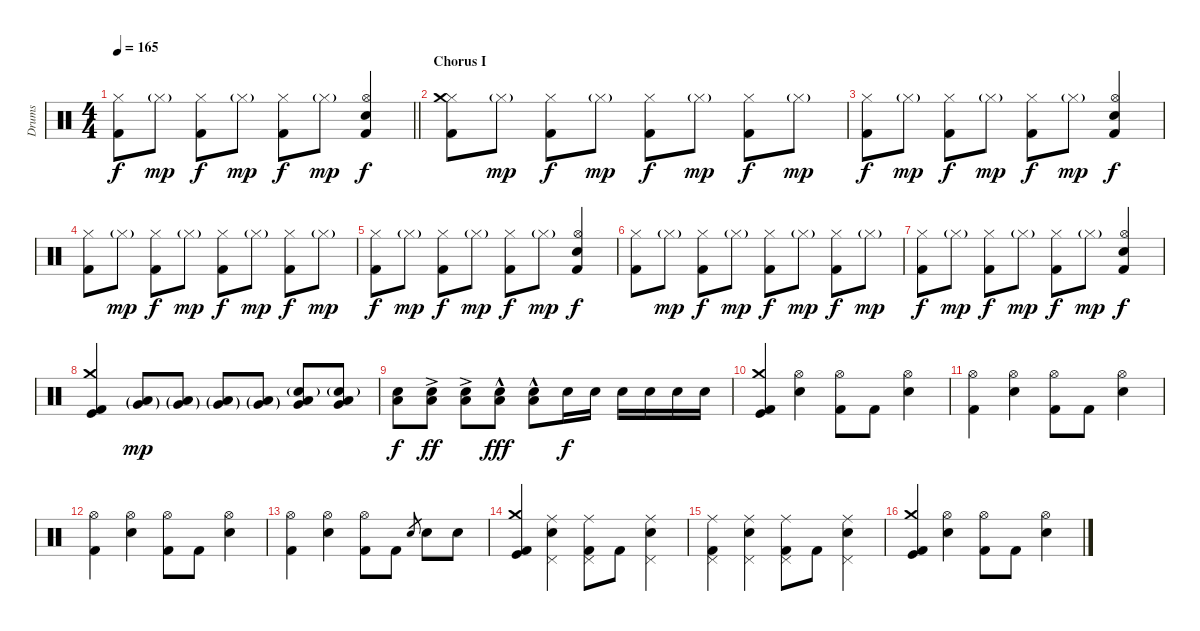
\track ("Drums" "Drums") {instrument percussion}
\staff {score}
\articulation defaults
\ts (4 4)
\tempo 165
\clef neutral
\barLineRight lightlight
\ks c
("Hi-Hat (closed)" "Kick (hit) 2").8{dy f} "Hi-Hat (closed)"{g}.8{dy mp} ("Hi-Hat (closed)" "Kick (hit) 2").8{dy f} "Hi-Hat (closed)"{g}.8{dy mp} ("Hi-Hat (closed)" "Kick (hit) 2").8{dy f} "Hi-Hat (closed)"{g}.8{dy mp} ("Hi-Hat (open)" "Kick (hit) 2" "Electric Snare (hit)").4{dy f} |
\section ("" "Chorus I")
("Hi-Hat (closed)" "Kick (hit) 2" "Crash medium (hit)").8 "Hi-Hat (closed)"{g}.8{dy mp} ("Hi-Hat (closed)" "Kick (hit) 2").8{dy f} "Hi-Hat (closed)"{g}.8{dy mp} ("Hi-Hat (closed)" "Kick (hit) 2").8{dy f} "Hi-Hat (closed)"{g}.8{dy mp} ("Hi-Hat (closed)" "Kick (hit) 2").8{dy f} "Hi-Hat (closed)"{g}.8{dy mp} |
("Hi-Hat (closed)" "Kick (hit) 2").8{dy f} "Hi-Hat (closed)"{g}.8{dy mp} ("Hi-Hat (closed)" "Kick (hit) 2").8{dy f} "Hi-Hat (closed)"{g}.8{dy mp} ("Hi-Hat (closed)" "Kick (hit) 2").8{dy f} "Hi-Hat (closed)"{g}.8{dy mp} ("Hi-Hat (open)" "Electric Snare (hit)" "Kick (hit) 2").4{dy f} |
("Hi-Hat (closed)" "Kick (hit) 2").8 "Hi-Hat (closed)"{g}.8{dy mp} ("Hi-Hat (closed)" "Kick (hit) 2").8{dy f} "Hi-Hat (closed)"{g}.8{dy mp} ("Hi-Hat (closed)" "Kick (hit) 2").8{dy f} "Hi-Hat (closed)"{g}.8{dy mp} ("Hi-Hat (closed)" "Kick (hit) 2").8{dy f} "Hi-Hat (closed)"{g}.8{dy mp} |
("Hi-Hat (closed)" "Kick (hit) 2").8{dy f} "Hi-Hat (closed)"{g}.8{dy mp} ("Hi-Hat (closed)" "Kick (hit) 2").8{dy f} "Hi-Hat (closed)"{g}.8{dy mp} ("Hi-Hat (closed)" "Kick (hit) 2").8{dy f} "Hi-Hat (closed)"{g}.8{dy mp} ("Hi-Hat (open)" "Electric Snare (hit)" "Kick (hit) 2").4{dy f} |
("Hi-Hat (closed)" "Kick (hit) 2").8 "Hi-Hat (closed)"{g}.8{dy mp} ("Hi-Hat (closed)" "Kick (hit) 2").8{dy f} "Hi-Hat (closed)"{g}.8{dy mp} ("Hi-Hat (closed)" "Kick (hit) 2").8{dy f} "Hi-Hat (closed)"{g}.8{dy mp} ("Hi-Hat (closed)" "Kick (hit) 2").8{dy f} "Hi-Hat (closed)"{g}.8{dy mp} |
("Hi-Hat (closed)" "Kick (hit) 2").8{dy f} "Hi-Hat (closed)"{g}.8{dy mp} ("Hi-Hat (closed)" "Kick (hit) 2").8{dy f} "Hi-Hat (closed)"{g}.8{dy mp} ("Hi-Hat (closed)" "Kick (hit) 2").8{dy f} "Hi-Hat (closed)"{g}.8{dy mp} ("Hi-Hat (open)" "Electric Snare (hit)" "Kick (hit) 2").4{dy f} |
("Kick (hit) 2" "Kick (hit)" "Crash medium (hit)").4 ("Low Floor Tom (hit)"{g} "Very Low Tom (hit)"{g}).8{dy mp} ("Low Floor Tom (hit)"{g} "Very Low Tom (hit)"{g}).8 ("Low Floor Tom (hit)"{g} "Very Low Tom (hit)"{g}).8 ("Low Floor Tom (hit)"{g} "Very Low Tom (hit)"{g}).8 ("Low Floor Tom (hit)" "Very Low Tom (hit)" "Electric Snare (hit)"{g}).8 ("Low Floor Tom (hit)" "Very Low Tom (hit)" "Electric Snare (hit)"{g}).8 |
("Low Floor Tom (hit)" "Electric Snare (hit)").8{dy f} ("Low Floor Tom (hit)"{ac} "Electric Snare (hit)"{ac}).8{dy ff} ("Low Floor Tom (hit)"{ac} "Electric Snare (hit)"{ac}).8 ("Low Floor Tom (hit)"{hac} "Electric Snare (hit)"{hac}).8{dy fff} ("Low Floor Tom (hit)"{hac} "Electric Snare (hit)"{hac}).8 "Electric Snare (hit)".16{dy f} "Electric Snare (hit)".16 "Electric Snare (hit)".16 "Electric Snare (hit)".16 "Electric Snare (hit)".16 "Electric Snare (hit)".16 |
("Kick (hit)" "Kick (hit) 2" "Crash medium (hit)").4 ("Hi-Hat (open)" "Electric Snare (hit)").4 ("Hi-Hat (open)" "Kick (hit) 2").8 "Kick (hit) 2".8 ("Hi-Hat (open)" "Electric Snare (hit)").4 |
("Hi-Hat (open)" "Kick (hit) 2").4 ("Hi-Hat (open)" "Electric Snare (hit)").4 ("Hi-Hat (open)" "Kick (hit) 2").8 "Kick (hit) 2".8 ("Hi-Hat (open)" "Electric Snare (hit)").4 |
("Hi-Hat (open)" "Kick (hit) 2").4 ("Hi-Hat (open)" "Electric Snare (hit)").4 ("Hi-Hat (open)" "Kick (hit) 2").8 "Kick (hit) 2".8 ("Hi-Hat (open)" "Electric Snare (hit)").4 |
("Hi-Hat (open)" "Kick (hit) 2").4 ("Hi-Hat (open)" "Electric Snare (hit)").4 ("Hi-Hat (open)" "Kick (hit) 2").8 "Kick (hit) 2".8 "Electric Snare (hit)".8{gr} "Electric Snare (hit)".8 "Electric Snare (hit)".8 |
("Crash medium (hit)" "Kick (hit) 2" "Kick (hit)").4 ("Pedal Hi-Hat (hit)" "Electric Snare (hit)" "Ride (middle)").4 ("Pedal Hi-Hat (hit)" "Kick (hit) 2" "Ride (middle)").8 "Kick (hit) 2".8 ("Pedal Hi-Hat (hit)" "Electric Snare (hit)" "Ride (middle)").4 |
("Pedal Hi-Hat (hit)" "Kick (hit) 2" "Ride (middle)").4 ("Pedal Hi-Hat (hit)" "Electric Snare (hit)" "Ride (middle)").4 ("Pedal Hi-Hat (hit)" "Kick (hit) 2" "Ride (middle)").8 "Kick (hit) 2".8 ("Pedal Hi-Hat (hit)" "Electric Snare (hit)" "Ride (middle)").4 |
("Crash medium (hit)" "Kick (hit) 2" "Kick (hit)").4 ("Hi-Hat (open)" "Electric Snare (hit)").4 ("Hi-Hat (open)" "Kick (hit) 2").8 "Kick (hit) 2".8 ("Hi-Hat (open)" "Electric Snare (hit)").4
